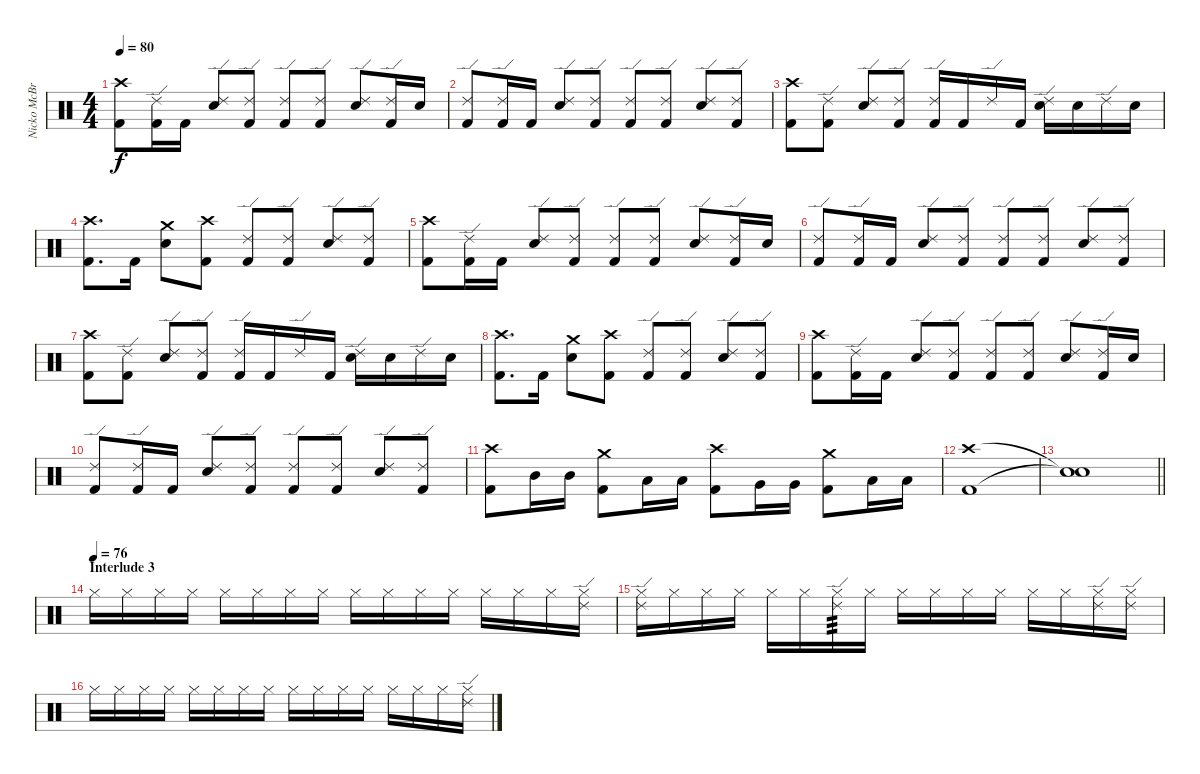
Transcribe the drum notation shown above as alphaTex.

\track ("Nicko McBrain" "Nicko McBr") {instrument percussion}
\staff {score}
\articulation defaults
\ts (4 4)
\tempo 80
\clef neutral
\ks c
("Crash high (hit)" "Kick (hit) 2").8{dy f} ("Ride (edge) 2" "Kick (hit) 2").16 "Kick (hit) 2".16 ("Ride (edge) 2" "Electric Snare (hit)").8 ("Ride (edge) 2" "Kick (hit) 2").8 ("Ride (edge) 2" "Kick (hit) 2").8 ("Ride (edge) 2" "Kick (hit) 2").8 ("Ride (edge) 2" "Electric Snare (hit)").8 ("Ride (edge) 2" "Kick (hit) 2").16 "Electric Snare (hit)".16 |
("Ride (edge) 2" "Kick (hit) 2").8 ("Ride (edge) 2" "Kick (hit) 2").16 "Kick (hit) 2".16 ("Ride (edge) 2" "Electric Snare (hit)").8 ("Ride (edge) 2" "Kick (hit) 2").8 ("Ride (edge) 2" "Kick (hit) 2").8 ("Ride (edge) 2" "Kick (hit) 2").8 ("Ride (edge) 2" "Electric Snare (hit)").8 ("Ride (edge) 2" "Kick (hit) 2").8 |
("Crash high (hit)" "Kick (hit) 2").8 ("Ride (edge) 2" "Kick (hit) 2").8 ("Ride (edge) 2" "Electric Snare (hit)").8 ("Ride (edge) 2" "Kick (hit) 2").8 ("Ride (edge) 2" "Kick (hit) 2").16 "Kick (hit) 2".16 "Ride (edge) 2".16 "Kick (hit) 2".16 ("Ride (edge) 2" "Electric Snare (hit)").16 "Electric Snare (hit)".16 "Ride (edge) 2".16 "Electric Snare (hit)".16 |
("Crash high (hit)" "Kick (hit) 2").8{d} "Kick (hit) 2".16 ("Crash medium (hit)" "Electric Snare (hit)").8 ("Crash high (hit)" "Kick (hit) 2").8 ("Ride (edge) 2" "Kick (hit) 2").8 ("Ride (edge) 2" "Kick (hit) 2").8 ("Ride (edge) 2" "Electric Snare (hit)").8 ("Ride (edge) 2" "Kick (hit) 2").8 |
("Crash high (hit)" "Kick (hit) 2").8 ("Ride (edge) 2" "Kick (hit) 2").16 "Kick (hit) 2".16 ("Ride (edge) 2" "Electric Snare (hit)").8 ("Ride (edge) 2" "Kick (hit) 2").8 ("Ride (edge) 2" "Kick (hit) 2").8 ("Ride (edge) 2" "Kick (hit) 2").8 ("Ride (edge) 2" "Electric Snare (hit)").8 ("Ride (edge) 2" "Kick (hit) 2").16 "Electric Snare (hit)".16 |
("Ride (edge) 2" "Kick (hit) 2").8 ("Ride (edge) 2" "Kick (hit) 2").16 "Kick (hit) 2".16 ("Ride (edge) 2" "Electric Snare (hit)").8 ("Ride (edge) 2" "Kick (hit) 2").8 ("Ride (edge) 2" "Kick (hit) 2").8 ("Ride (edge) 2" "Kick (hit) 2").8 ("Ride (edge) 2" "Electric Snare (hit)").8 ("Ride (edge) 2" "Kick (hit) 2").8 |
("Crash high (hit)" "Kick (hit) 2").8 ("Ride (edge) 2" "Kick (hit) 2").8 ("Ride (edge) 2" "Electric Snare (hit)").8 ("Ride (edge) 2" "Kick (hit) 2").8 ("Ride (edge) 2" "Kick (hit) 2").16 "Kick (hit) 2".16 "Ride (edge) 2".16 "Kick (hit) 2".16 ("Ride (edge) 2" "Electric Snare (hit)").16 "Electric Snare (hit)".16 "Ride (edge) 2".16 "Electric Snare (hit)".16 |
("Crash high (hit)" "Kick (hit) 2").8{d} "Kick (hit) 2".16 ("Crash medium (hit)" "Electric Snare (hit)").8 ("Crash high (hit)" "Kick (hit) 2").8 ("Ride (edge) 2" "Kick (hit) 2").8 ("Ride (edge) 2" "Kick (hit) 2").8 ("Ride (edge) 2" "Electric Snare (hit)").8 ("Ride (edge) 2" "Kick (hit) 2").8 |
("Crash high (hit)" "Kick (hit) 2").8 ("Ride (edge) 2" "Kick (hit) 2").16 "Kick (hit) 2".16 ("Ride (edge) 2" "Electric Snare (hit)").8 ("Ride (edge) 2" "Kick (hit) 2").8 ("Ride (edge) 2" "Kick (hit) 2").8 ("Ride (edge) 2" "Kick (hit) 2").8 ("Ride (edge) 2" "Electric Snare (hit)").8 ("Ride (edge) 2" "Kick (hit) 2").16 "Electric Snare (hit)".16 |
("Ride (edge) 2" "Kick (hit) 2").8 ("Ride (edge) 2" "Kick (hit) 2").16 "Kick (hit) 2".16 ("Ride (edge) 2" "Electric Snare (hit)").8 ("Ride (edge) 2" "Kick (hit) 2").8 ("Ride (edge) 2" "Kick (hit) 2").8 ("Ride (edge) 2" "Kick (hit) 2").8 ("Ride (edge) 2" "Electric Snare (hit)").8 ("Ride (edge) 2" "Kick (hit) 2").8 |
("Crash high (hit)" "Kick (hit) 2").8 "Mid Tom (hit)".16 "Mid Tom (hit)".16 ("Crash medium (hit)" "Kick (hit) 2").8 "Low Tom (hit)".16 "Low Tom (hit)".16 ("Crash high (hit)" "Kick (hit) 2").8 "Very Low Tom (hit)".16 "Very Low Tom (hit)".16 ("Crash medium (hit)" "Kick (hit) 2").8 "Low Floor Tom (hit)".16 "Low Floor Tom (hit)".16 |
("Crash high (hit)" "Kick (hit) 2").1 |
\barLineRight lightlight
("Snare (hit)"{t} "Snare (hit)"{t}).1 |
\section ("" "Interlude 3")
\tempo (76)
"Hi-Hat (closed)".16{volume 8} "Hi-Hat (closed)".16 "Hi-Hat (closed)".16 "Hi-Hat (closed)".16 "Hi-Hat (closed)".16 "Hi-Hat (closed)".16 "Hi-Hat (closed)".16 "Hi-Hat (closed)".16 "Hi-Hat (closed)".16 "Hi-Hat (closed)".16 "Hi-Hat (closed)".16 "Hi-Hat (closed)".16 "Hi-Hat (closed)".16 "Hi-Hat (closed)".16 "Hi-Hat (closed)".16 ("Ride (edge) 2" "Hi-Hat (closed)").16 |
("Ride (edge) 2" "Hi-Hat (closed)").16 "Hi-Hat (closed)".16 "Hi-Hat (closed)".16 "Hi-Hat (closed)".16 "Hi-Hat (closed)".16 "Hi-Hat (closed)".16 ("Ride (edge) 2" "Hi-Hat (closed)").16{tp 3} "Hi-Hat (closed)".16 "Hi-Hat (closed)".16 "Hi-Hat (closed)".16 "Hi-Hat (closed)".16 "Hi-Hat (closed)".16 "Hi-Hat (closed)".16 "Hi-Hat (closed)".16 ("Ride (edge) 2" "Hi-Hat (closed)").16 ("Ride (edge) 2" "Hi-Hat (closed)").16 |
"Hi-Hat (closed)".16 "Hi-Hat (closed)".16 "Hi-Hat (closed)".16 "Hi-Hat (closed)".16 "Hi-Hat (closed)".16 "Hi-Hat (closed)".16 "Hi-Hat (closed)".16 "Hi-Hat (closed)".16 "Hi-Hat (closed)".16 "Hi-Hat (closed)".16 "Hi-Hat (closed)".16 "Hi-Hat (closed)".16 "Hi-Hat (closed)".16 "Hi-Hat (closed)".16 "Hi-Hat (closed)".16 ("Ride (edge) 2" "Hi-Hat (closed)").16
